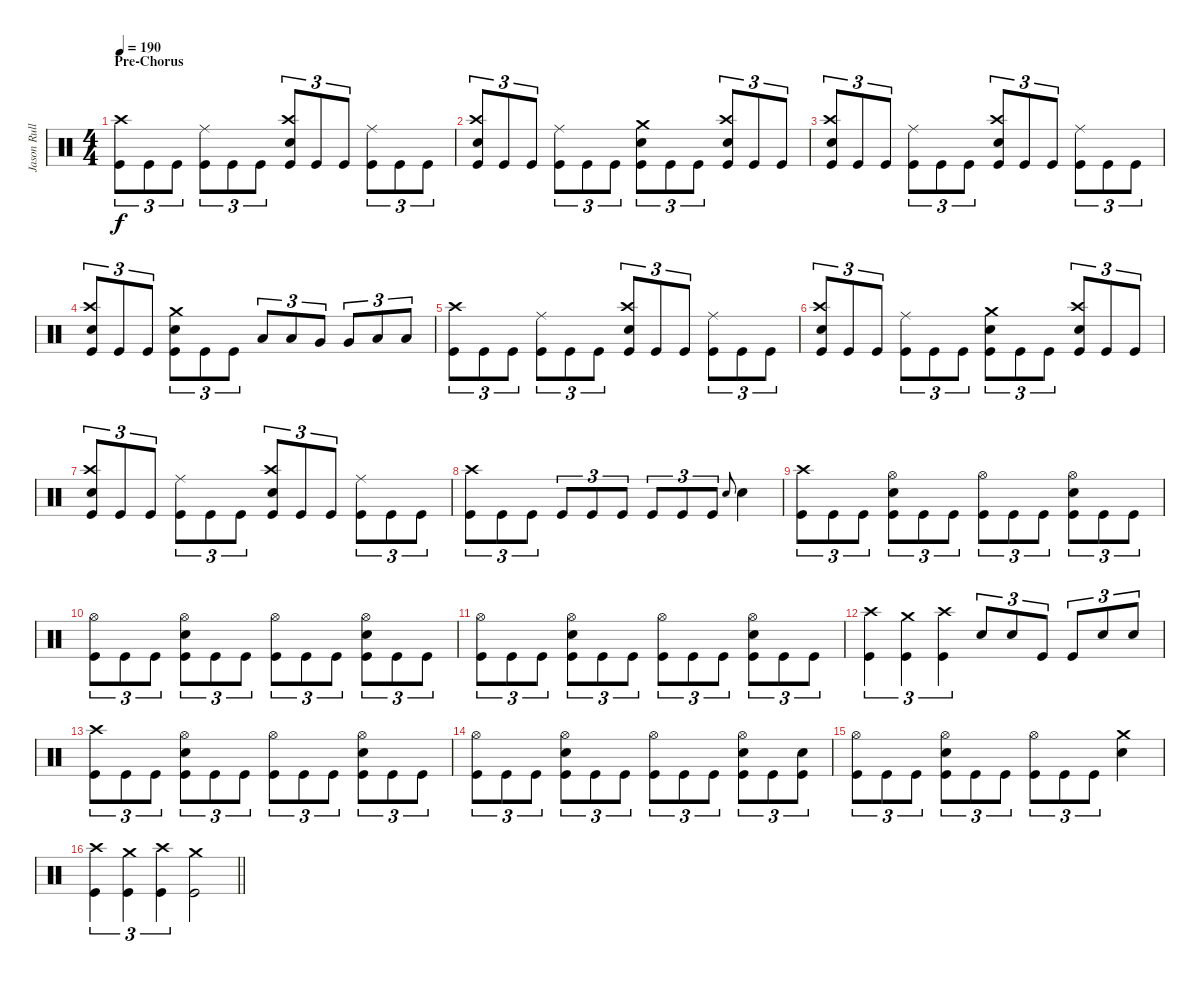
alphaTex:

\track ("Jason Rullo - Drums and Percussion" "Jason Rull") {instrument percussion}
\staff {score}
\articulation defaults
\ts (4 4)
\section ("" "Pre-Chorus")
\tempo 190
\clef neutral
\ks c
("Kick (hit)" "Crash high (hit)").8{tu (3 2) dy f} "Kick (hit)".8{tu (3 2)} "Kick (hit)".8{tu (3 2)} ("Kick (hit)" "Ride (middle)").8{tu (3 2)} "Kick (hit)".8{tu (3 2)} "Kick (hit)".8{tu (3 2)} ("Snare (hit) 2" "Kick (hit)" "Crash high (hit)").8{tu (3 2)} "Kick (hit)".8{tu (3 2)} "Kick (hit)".8{tu (3 2)} ("Kick (hit)" "Ride (middle)").8{tu (3 2)} "Kick (hit)".8{tu (3 2)} "Kick (hit)".8{tu (3 2)} |
("Snare (hit) 2" "Kick (hit)" "Crash high (hit)").8{tu (3 2)} "Kick (hit)".8{tu (3 2)} "Kick (hit)".8{tu (3 2)} ("Kick (hit)" "Ride (middle)").8{tu (3 2)} "Kick (hit)".8{tu (3 2)} "Kick (hit)".8{tu (3 2)} ("Kick (hit)" "Snare (hit) 2" "Crash medium (hit)").8{tu (3 2)} "Kick (hit)".8{tu (3 2)} "Kick (hit)".8{tu (3 2)} ("Kick (hit)" "Snare (hit) 2" "Crash high (hit)").8{tu (3 2)} "Kick (hit)".8{tu (3 2)} "Kick (hit)".8{tu (3 2)} |
("Kick (hit)" "Crash high (hit)" "Snare (hit) 2").8{tu (3 2)} "Kick (hit)".8{tu (3 2)} "Kick (hit)".8{tu (3 2)} ("Kick (hit)" "Ride (middle)").8{tu (3 2)} "Kick (hit)".8{tu (3 2)} "Kick (hit)".8{tu (3 2)} ("Snare (hit) 2" "Kick (hit)" "Crash high (hit)").8{tu (3 2)} "Kick (hit)".8{tu (3 2)} "Kick (hit)".8{tu (3 2)} ("Kick (hit)" "Ride (middle)").8{tu (3 2)} "Kick (hit)".8{tu (3 2)} "Kick (hit)".8{tu (3 2)} |
("Kick (hit)" "Crash high (hit)" "Snare (hit) 2").8{tu (3 2)} "Kick (hit)".8{tu (3 2)} "Kick (hit)".8{tu (3 2)} ("Kick (hit)" "Snare (hit) 2" "Crash medium (hit)").8{tu (3 2)} "Kick (hit)".8{tu (3 2)} "Kick (hit)".8{tu (3 2)} "Low Tom (hit)".8{tu (3 2)} "Low Tom (hit)".8{tu (3 2)} "Very Low Tom (hit)".8{tu (3 2)} "Very Low Tom (hit)".8{tu (3 2)} "Low Floor Tom (hit)".8{tu (3 2)} "Low Floor Tom (hit)".8{tu (3 2)} |
("Kick (hit)" "Crash high (hit)").8{tu (3 2)} "Kick (hit)".8{tu (3 2)} "Kick (hit)".8{tu (3 2)} ("Kick (hit)" "Ride (middle)").8{tu (3 2)} "Kick (hit)".8{tu (3 2)} "Kick (hit)".8{tu (3 2)} ("Snare (hit) 2" "Kick (hit)" "Crash high (hit)").8{tu (3 2)} "Kick (hit)".8{tu (3 2)} "Kick (hit)".8{tu (3 2)} ("Kick (hit)" "Ride (middle)").8{tu (3 2)} "Kick (hit)".8{tu (3 2)} "Kick (hit)".8{tu (3 2)} |
("Snare (hit) 2" "Kick (hit)" "Crash high (hit)").8{tu (3 2)} "Kick (hit)".8{tu (3 2)} "Kick (hit)".8{tu (3 2)} ("Kick (hit)" "Ride (middle)").8{tu (3 2)} "Kick (hit)".8{tu (3 2)} "Kick (hit)".8{tu (3 2)} ("Kick (hit)" "Snare (hit) 2" "Crash medium (hit)").8{tu (3 2)} "Kick (hit)".8{tu (3 2)} "Kick (hit)".8{tu (3 2)} ("Kick (hit)" "Snare (hit) 2" "Crash high (hit)").8{tu (3 2)} "Kick (hit)".8{tu (3 2)} "Kick (hit)".8{tu (3 2)} |
("Kick (hit)" "Crash high (hit)" "Snare (hit) 2").8{tu (3 2)} "Kick (hit)".8{tu (3 2)} "Kick (hit)".8{tu (3 2)} ("Kick (hit)" "Ride (middle)").8{tu (3 2)} "Kick (hit)".8{tu (3 2)} "Kick (hit)".8{tu (3 2)} ("Snare (hit) 2" "Kick (hit)" "Crash high (hit)").8{tu (3 2)} "Kick (hit)".8{tu (3 2)} "Kick (hit)".8{tu (3 2)} ("Kick (hit)" "Ride (middle)").8{tu (3 2)} "Kick (hit)".8{tu (3 2)} "Kick (hit)".8{tu (3 2)} |
("Kick (hit)" "Crash high (hit)").8{tu (3 2)} "Kick (hit)".8{tu (3 2)} "Kick (hit)".8{tu (3 2)} "Kick (hit)".8{tu (3 2)} "Kick (hit)".8{tu (3 2)} "Kick (hit)".8{tu (3 2)} "Kick (hit)".8{tu (3 2)} "Kick (hit)".8{tu (3 2)} "Kick (hit)".8{tu (3 2)} "Snare (hit) 2".8{gr onbeat} "Snare (hit) 2".4 |
("Kick (hit)" "Crash high (hit)").8{tu (3 2)} "Kick (hit)".8{tu (3 2)} "Kick (hit)".8{tu (3 2)} ("Kick (hit)" "Snare (hit) 2" "Hi-Hat (open)").8{tu (3 2)} "Kick (hit)".8{tu (3 2)} "Kick (hit)".8{tu (3 2)} ("Hi-Hat (open)" "Kick (hit)").8{tu (3 2)} "Kick (hit)".8{tu (3 2)} "Kick (hit)".8{tu (3 2)} ("Kick (hit)" "Snare (hit) 2" "Hi-Hat (open)").8{tu (3 2)} "Kick (hit)".8{tu (3 2)} "Kick (hit)".8{tu (3 2)} |
("Kick (hit)" "Hi-Hat (open)").8{tu (3 2)} "Kick (hit)".8{tu (3 2)} "Kick (hit)".8{tu (3 2)} ("Kick (hit)" "Snare (hit) 2" "Hi-Hat (open)").8{tu (3 2)} "Kick (hit)".8{tu (3 2)} "Kick (hit)".8{tu (3 2)} ("Hi-Hat (open)" "Kick (hit)").8{tu (3 2)} "Kick (hit)".8{tu (3 2)} "Kick (hit)".8{tu (3 2)} ("Kick (hit)" "Snare (hit) 2" "Hi-Hat (open)").8{tu (3 2)} "Kick (hit)".8{tu (3 2)} "Kick (hit)".8{tu (3 2)} |
("Kick (hit)" "Hi-Hat (open)").8{tu (3 2)} "Kick (hit)".8{tu (3 2)} "Kick (hit)".8{tu (3 2)} ("Kick (hit)" "Snare (hit) 2" "Hi-Hat (open)").8{tu (3 2)} "Kick (hit)".8{tu (3 2)} "Kick (hit)".8{tu (3 2)} ("Hi-Hat (open)" "Kick (hit)").8{tu (3 2)} "Kick (hit)".8{tu (3 2)} "Kick (hit)".8{tu (3 2)} ("Kick (hit)" "Snare (hit) 2" "Hi-Hat (open)").8{tu (3 2)} "Kick (hit)".8{tu (3 2)} "Kick (hit)".8{tu (3 2)} |
("Kick (hit)" "Crash high (hit)").4{tu (3 2)} ("Kick (hit)" "Crash medium (hit)").4{tu (3 2)} ("Kick (hit)" "Crash high (hit)").4{tu (3 2)} "Snare (hit) 2".8{tu (3 2)} "Snare (hit) 2".8{tu (3 2)} "Kick (hit)".8{tu (3 2)} "Kick (hit)".8{tu (3 2)} "Snare (hit) 2".8{tu (3 2)} "Snare (hit) 2".8{tu (3 2)} |
("Kick (hit)" "Crash high (hit)").8{tu (3 2)} "Kick (hit)".8{tu (3 2)} "Kick (hit)".8{tu (3 2)} ("Kick (hit)" "Snare (hit) 2" "Hi-Hat (open)").8{tu (3 2)} "Kick (hit)".8{tu (3 2)} "Kick (hit)".8{tu (3 2)} ("Hi-Hat (open)" "Kick (hit)").8{tu (3 2)} "Kick (hit)".8{tu (3 2)} "Kick (hit)".8{tu (3 2)} ("Kick (hit)" "Snare (hit) 2" "Hi-Hat (open)").8{tu (3 2)} "Kick (hit)".8{tu (3 2)} "Kick (hit)".8{tu (3 2)} |
("Kick (hit)" "Hi-Hat (open)").8{tu (3 2)} "Kick (hit)".8{tu (3 2)} "Kick (hit)".8{tu (3 2)} ("Kick (hit)" "Snare (hit) 2" "Hi-Hat (open)").8{tu (3 2)} "Kick (hit)".8{tu (3 2)} "Kick (hit)".8{tu (3 2)} ("Hi-Hat (open)" "Kick (hit)").8{tu (3 2)} "Kick (hit)".8{tu (3 2)} "Kick (hit)".8{tu (3 2)} ("Kick (hit)" "Snare (hit) 2" "Hi-Hat (open)").8{tu (3 2)} "Kick (hit)".8{tu (3 2)} ("Kick (hit)" "Snare (hit) 2").8{tu (3 2)} |
("Kick (hit)" "Hi-Hat (open)").8{tu (3 2)} "Kick (hit)".8{tu (3 2)} "Kick (hit)".8{tu (3 2)} ("Kick (hit)" "Snare (hit) 2" "Hi-Hat (open)").8{tu (3 2)} "Kick (hit)".8{tu (3 2)} "Kick (hit)".8{tu (3 2)} ("Hi-Hat (open)" "Kick (hit)").8{tu (3 2)} "Kick (hit)".8{tu (3 2)} "Kick (hit)".8{tu (3 2)} ("Snare (hit) 2" "Crash medium (hit)").4 |
\barLineRight lightlight
("Kick (hit)" "Crash high (hit)").4{tu (3 2)} ("Kick (hit)" "Crash medium (hit)").4{tu (3 2)} ("Kick (hit)" "Crash high (hit)").4{tu (3 2)} ("Kick (hit)" "Crash medium (hit)").2
